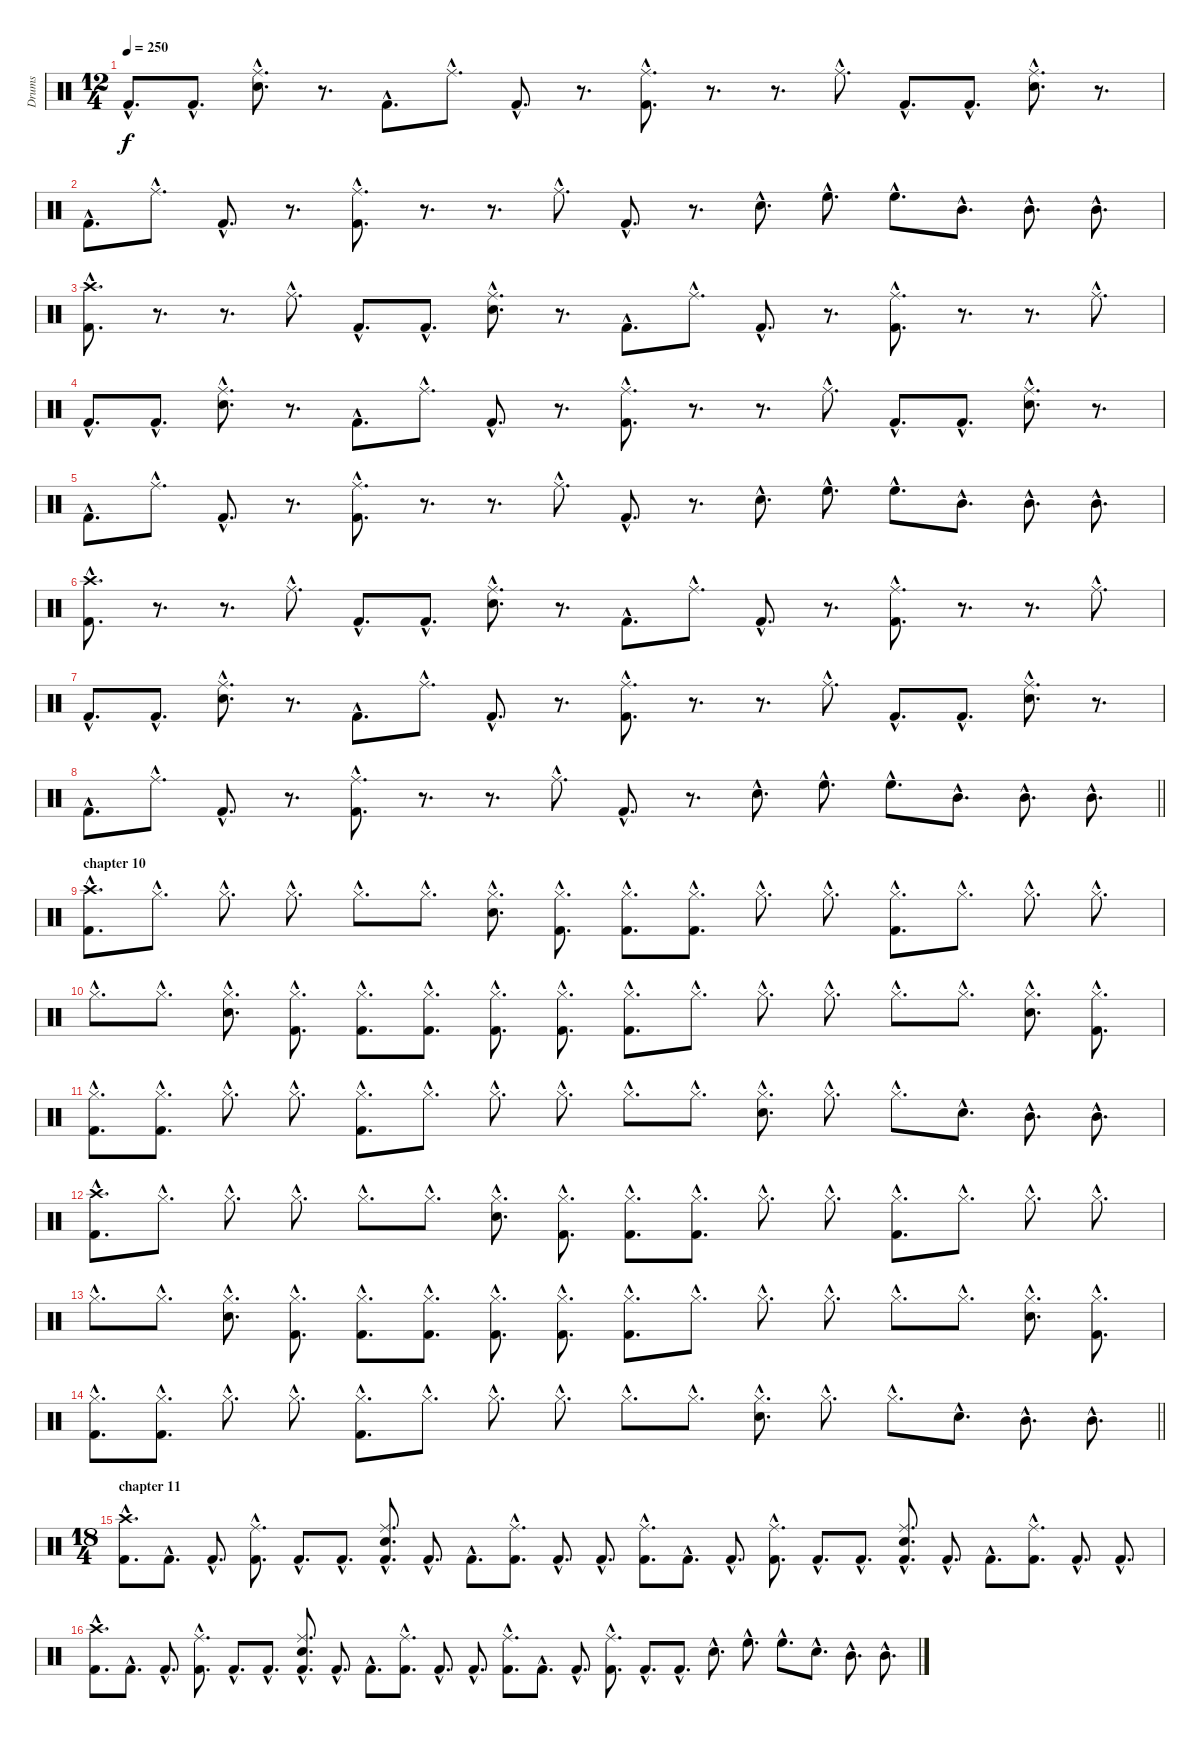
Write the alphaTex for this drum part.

\track ("Drums" "Drums") {instrument percussion}
\staff {score}
\articulation defaults
\ts (12 4)
\tempo 250
\clef neutral
\ks c "Kick (hit) 2"{hac}.8{d dy f} "Kick (hit) 2"{hac}.8{d}
("Ride (middle)"{hac} "Snare (hit) 2"{hac}).8{d} r.8{d} "Kick (hit) 2"{hac}.8{d} "Ride (middle)"{hac}.8{d} "Kick (hit) 2"{hac}.8{d} r.8{d} ("Ride (middle)"{hac} "Kick (hit) 2"{hac}).8{d} r.8{d} r.8{d} "Ride (middle)"{hac}.8{d} "Kick (hit) 2"{hac}.8{d} "Kick (hit) 2"{hac}.8{d} ("Ride (middle)"{hac} "Snare (hit) 2"{hac}).8{d} r.8{d} |
"Kick (hit) 2"{hac}.8{d} "Ride (middle)"{hac}.8{d} "Kick (hit) 2"{hac}.8{d} r.8{d} ("Ride (middle)"{hac} "Kick (hit) 2"{hac}).8{d} r.8{d} r.8{d} "Ride (middle)"{hac}.8{d} "Kick (hit) 2"{hac}.8{d} r.8{d} "Snare (hit) 2"{hac}.8{d} "High Floor Tom (hit)"{hac}.8{d} "High Floor Tom (hit)"{hac}.8{d} "Mid Tom (hit)"{hac}.8{d} "Mid Tom (hit)"{hac}.8{d} "Mid Tom (hit)"{hac}.8{d} |
("Crash high (hit)"{hac} "Kick (hit) 2"{hac}).8{d} r.8{d} r.8{d} "Ride (middle)"{hac}.8{d} "Kick (hit) 2"{hac}.8{d} "Kick (hit) 2"{hac}.8{d} ("Ride (middle)"{hac} "Snare (hit) 2"{hac}).8{d} r.8{d} "Kick (hit) 2"{hac}.8{d} "Ride (middle)"{hac}.8{d} "Kick (hit) 2"{hac}.8{d} r.8{d} ("Ride (middle)"{hac} "Kick (hit) 2"{hac}).8{d} r.8{d} r.8{d} "Ride (middle)"{hac}.8{d} |
"Kick (hit) 2"{hac}.8{d} "Kick (hit) 2"{hac}.8{d} ("Ride (middle)"{hac} "Snare (hit) 2"{hac}).8{d} r.8{d} "Kick (hit) 2"{hac}.8{d} "Ride (middle)"{hac}.8{d} "Kick (hit) 2"{hac}.8{d} r.8{d} ("Ride (middle)"{hac} "Kick (hit) 2"{hac}).8{d} r.8{d} r.8{d} "Ride (middle)"{hac}.8{d} "Kick (hit) 2"{hac}.8{d} "Kick (hit) 2"{hac}.8{d} ("Ride (middle)"{hac} "Snare (hit) 2"{hac}).8{d} r.8{d} |
"Kick (hit) 2"{hac}.8{d} "Ride (middle)"{hac}.8{d} "Kick (hit) 2"{hac}.8{d} r.8{d} ("Ride (middle)"{hac} "Kick (hit) 2"{hac}).8{d} r.8{d} r.8{d} "Ride (middle)"{hac}.8{d} "Kick (hit) 2"{hac}.8{d} r.8{d} "Snare (hit) 2"{hac}.8{d} "High Floor Tom (hit)"{hac}.8{d} "High Floor Tom (hit)"{hac}.8{d} "Mid Tom (hit)"{hac}.8{d} "Mid Tom (hit)"{hac}.8{d} "Mid Tom (hit)"{hac}.8{d} |
("Crash high (hit)"{hac} "Kick (hit) 2"{hac}).8{d} r.8{d} r.8{d} "Ride (middle)"{hac}.8{d} "Kick (hit) 2"{hac}.8{d} "Kick (hit) 2"{hac}.8{d} ("Ride (middle)"{hac} "Snare (hit) 2"{hac}).8{d} r.8{d} "Kick (hit) 2"{hac}.8{d} "Ride (middle)"{hac}.8{d} "Kick (hit) 2"{hac}.8{d} r.8{d} ("Ride (middle)"{hac} "Kick (hit) 2"{hac}).8{d} r.8{d} r.8{d} "Ride (middle)"{hac}.8{d} |
"Kick (hit) 2"{hac}.8{d} "Kick (hit) 2"{hac}.8{d} ("Ride (middle)"{hac} "Snare (hit) 2"{hac}).8{d} r.8{d} "Kick (hit) 2"{hac}.8{d} "Ride (middle)"{hac}.8{d} "Kick (hit) 2"{hac}.8{d} r.8{d} ("Ride (middle)"{hac} "Kick (hit) 2"{hac}).8{d} r.8{d} r.8{d} "Ride (middle)"{hac}.8{d} "Kick (hit) 2"{hac}.8{d} "Kick (hit) 2"{hac}.8{d} ("Ride (middle)"{hac} "Snare (hit) 2"{hac}).8{d} r.8{d} |
\barLineRight lightlight "Kick (hit) 2"{hac}.8{d} "Ride (middle)"{hac}.8{d} "Kick (hit) 2"{hac}.8{d}
r.8{d} ("Ride (middle)"{hac} "Kick (hit) 2"{hac}).8{d} r.8{d} r.8{d} "Ride (middle)"{hac}.8{d} "Kick (hit) 2"{hac}.8{d} r.8{d} "Snare (hit) 2"{hac}.8{d} "High Floor Tom (hit)"{hac}.8{d} "High Floor Tom (hit)"{hac}.8{d} "Mid Tom (hit)"{hac}.8{d} "Mid Tom (hit)"{hac}.8{d} "Mid Tom (hit)"{hac}.8{d} |
\section ("" "chapter 10")
("Crash high (hit)"{hac} "Kick (hit) 2"{hac}).8{d} "Hi-Hat (closed)"{hac}.8{d} "Hi-Hat (closed)"{hac}.8{d} "Hi-Hat (closed)"{hac}.8{d} "Hi-Hat (closed)"{hac}.8{d} "Hi-Hat (closed)"{hac}.8{d} ("Hi-Hat (closed)"{hac} "Snare (hit) 2"{hac}).8{d} ("Hi-Hat (closed)"{hac} "Kick (hit) 2"{hac}).8{d} ("Hi-Hat (closed)"{hac} "Kick (hit) 2"{hac}).8{d} ("Hi-Hat (closed)"{hac} "Kick (hit) 2"{hac}).8{d} "Hi-Hat (closed)"{hac}.8{d} "Hi-Hat (closed)"{hac}.8{d} ("Hi-Hat (closed)"{hac} "Kick (hit) 2"{hac}).8{d} "Hi-Hat (closed)"{hac}.8{d} "Hi-Hat (closed)"{hac}.8{d} "Hi-Hat (closed)"{hac}.8{d} |
"Hi-Hat (closed)"{hac}.8{d} "Hi-Hat (closed)"{hac}.8{d} ("Hi-Hat (closed)"{hac} "Snare (hit) 2"{hac}).8{d} ("Hi-Hat (closed)"{hac} "Kick (hit) 2"{hac}).8{d} ("Hi-Hat (closed)"{hac} "Kick (hit) 2"{hac}).8{d} ("Hi-Hat (closed)"{hac} "Kick (hit) 2"{hac}).8{d} ("Hi-Hat (closed)"{hac} "Kick (hit) 2"{hac}).8{d} ("Hi-Hat (closed)"{hac} "Kick (hit) 2"{hac}).8{d} ("Hi-Hat (closed)"{hac} "Kick (hit) 2"{hac}).8{d} "Hi-Hat (closed)"{hac}.8{d} "Hi-Hat (closed)"{hac}.8{d} "Hi-Hat (closed)"{hac}.8{d} "Hi-Hat (closed)"{hac}.8{d} "Hi-Hat (closed)"{hac}.8{d} ("Hi-Hat (closed)"{hac} "Snare (hit) 2"{hac}).8{d} ("Hi-Hat (closed)"{hac} "Kick (hit) 2"{hac}).8{d} |
("Hi-Hat (closed)"{hac} "Kick (hit) 2"{hac}).8{d} ("Hi-Hat (closed)"{hac} "Kick (hit) 2"{hac}).8{d} "Hi-Hat (closed)"{hac}.8{d} "Hi-Hat (closed)"{hac}.8{d} ("Hi-Hat (closed)"{hac} "Kick (hit) 2"{hac}).8{d} "Hi-Hat (closed)"{hac}.8{d} "Hi-Hat (closed)"{hac}.8{d} "Hi-Hat (closed)"{hac}.8{d} "Hi-Hat (closed)"{hac}.8{d} "Hi-Hat (closed)"{hac}.8{d} ("Hi-Hat (closed)"{hac} "Snare (hit) 2"{hac}).8{d} "Hi-Hat (closed)"{hac}.8{d} "Hi-Hat (closed)"{hac}.8{d} "Snare (hit) 2"{hac}.8{d} "Mid Tom (hit)"{hac}.8{d} "Mid Tom (hit)"{hac}.8{d} |
("Crash high (hit)"{hac} "Kick (hit) 2"{hac}).8{d} "Hi-Hat (closed)"{hac}.8{d} "Hi-Hat (closed)"{hac}.8{d} "Hi-Hat (closed)"{hac}.8{d} "Hi-Hat (closed)"{hac}.8{d} "Hi-Hat (closed)"{hac}.8{d} ("Hi-Hat (closed)"{hac} "Snare (hit) 2"{hac}).8{d} ("Hi-Hat (closed)"{hac} "Kick (hit) 2"{hac}).8{d} ("Hi-Hat (closed)"{hac} "Kick (hit) 2"{hac}).8{d} ("Hi-Hat (closed)"{hac} "Kick (hit) 2"{hac}).8{d} "Hi-Hat (closed)"{hac}.8{d} "Hi-Hat (closed)"{hac}.8{d} ("Hi-Hat (closed)"{hac} "Kick (hit) 2"{hac}).8{d} "Hi-Hat (closed)"{hac}.8{d} "Hi-Hat (closed)"{hac}.8{d} "Hi-Hat (closed)"{hac}.8{d} |
"Hi-Hat (closed)"{hac}.8{d} "Hi-Hat (closed)"{hac}.8{d} ("Hi-Hat (closed)"{hac} "Snare (hit) 2"{hac}).8{d} ("Hi-Hat (closed)"{hac} "Kick (hit) 2"{hac}).8{d} ("Hi-Hat (closed)"{hac} "Kick (hit) 2"{hac}).8{d} ("Hi-Hat (closed)"{hac} "Kick (hit) 2"{hac}).8{d} ("Hi-Hat (closed)"{hac} "Kick (hit) 2"{hac}).8{d} ("Hi-Hat (closed)"{hac} "Kick (hit) 2"{hac}).8{d} ("Hi-Hat (closed)"{hac} "Kick (hit) 2"{hac}).8{d} "Hi-Hat (closed)"{hac}.8{d} "Hi-Hat (closed)"{hac}.8{d} "Hi-Hat (closed)"{hac}.8{d} "Hi-Hat (closed)"{hac}.8{d} "Hi-Hat (closed)"{hac}.8{d} ("Hi-Hat (closed)"{hac} "Snare (hit) 2"{hac}).8{d} ("Hi-Hat (closed)"{hac} "Kick (hit) 2"{hac}).8{d} |
\barLineRight lightlight
("Hi-Hat (closed)"{hac} "Kick (hit) 2"{hac}).8{d} ("Hi-Hat (closed)"{hac} "Kick (hit) 2"{hac}).8{d} "Hi-Hat (closed)"{hac}.8{d} "Hi-Hat (closed)"{hac}.8{d} ("Hi-Hat (closed)"{hac} "Kick (hit) 2"{hac}).8{d} "Hi-Hat (closed)"{hac}.8{d} "Hi-Hat (closed)"{hac}.8{d} "Hi-Hat (closed)"{hac}.8{d} "Hi-Hat (closed)"{hac}.8{d} "Hi-Hat (closed)"{hac}.8{d} ("Hi-Hat (closed)"{hac} "Snare (hit) 2"{hac}).8{d} "Hi-Hat (closed)"{hac}.8{d} "Hi-Hat (closed)"{hac}.8{d} "Snare (hit) 2"{hac}.8{d} "Mid Tom (hit)"{hac}.8{d} "Mid Tom (hit)"{hac}.8{d} |
\ts (18 4)
\section ("" "chapter 11")
("Crash high (hit)"{hac} "Kick (hit) 2"{hac}).8{d} "Kick (hit) 2"{hac}.8{d} "Kick (hit) 2"{hac}.8{d} ("Ride (middle)"{hac} "Kick (hit) 2"{hac}).8{d} "Kick (hit) 2"{hac}.8{d} "Kick (hit) 2"{hac}.8{d} ("Ride (middle)"{hac} "Snare (hit) 2"{hac} "Kick (hit) 2"{hac}).8{d} "Kick (hit) 2"{hac}.8{d} "Kick (hit) 2"{hac}.8{d} ("Ride (middle)"{hac} "Kick (hit) 2"{hac}).8{d} "Kick (hit) 2"{hac}.8{d} "Kick (hit) 2"{hac}.8{d} ("Ride (middle)"{hac} "Kick (hit) 2"{hac}).8{d} "Kick (hit) 2"{hac}.8{d} "Kick (hit) 2"{hac}.8{d} ("Ride (middle)"{hac} "Kick (hit) 2"{hac}).8{d} "Kick (hit) 2"{hac}.8{d} "Kick (hit) 2"{hac}.8{d} ("Ride (middle)"{hac} "Snare (hit) 2"{hac} "Kick (hit) 2"{hac}).8{d} "Kick (hit) 2"{hac}.8{d} "Kick (hit) 2"{hac}.8{d} ("Ride (middle)"{hac} "Kick (hit) 2"{hac}).8{d} "Kick (hit) 2"{hac}.8{d} "Kick (hit) 2"{hac}.8{d} |
("Crash high (hit)"{hac} "Kick (hit) 2"{hac}).8{d} "Kick (hit) 2"{hac}.8{d} "Kick (hit) 2"{hac}.8{d} ("Ride (middle)"{hac} "Kick (hit) 2"{hac}).8{d} "Kick (hit) 2"{hac}.8{d} "Kick (hit) 2"{hac}.8{d} ("Ride (middle)"{hac} "Snare (hit) 2"{hac} "Kick (hit) 2"{hac}).8{d} "Kick (hit) 2"{hac}.8{d} "Kick (hit) 2"{hac}.8{d} ("Ride (middle)"{hac} "Kick (hit) 2"{hac}).8{d} "Kick (hit) 2"{hac}.8{d} "Kick (hit) 2"{hac}.8{d} ("Ride (middle)"{hac} "Kick (hit) 2"{hac}).8{d} "Kick (hit) 2"{hac}.8{d} "Kick (hit) 2"{hac}.8{d} ("Ride (middle)"{hac} "Kick (hit) 2"{hac}).8{d} "Kick (hit) 2"{hac}.8{d} "Kick (hit) 2"{hac}.8{d} "Snare (hit) 2"{hac}.8{d} "High Floor Tom (hit)"{hac}.8{d} "High Floor Tom (hit)"{hac}.8{d} "Snare (hit) 2"{hac}.8{d} "Mid Tom (hit)"{hac}.8{d} "Mid Tom (hit)"{hac}.8{d}
